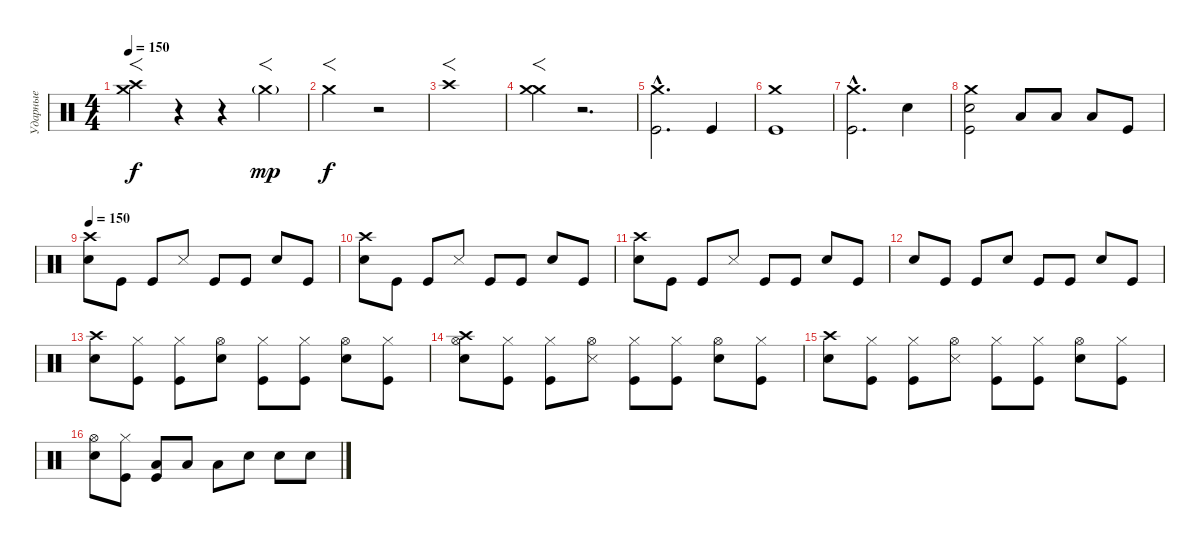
\track ("Ударные" "Ударные") {instrument percussion}
\staff {score}
\articulation defaults
\ts (4 4)
\tempo 150
\clef neutral
\ks c
("Crash high (hit)" "Crash medium (hit)").4{f dy f} r.4 r.4 "Crash medium (hit)"{g}.4{f dy mp} |
"Crash medium (hit)".2{f dy f} r.2 |
"Crash high (hit)".1{f} |
("Crash medium (hit)" "Crash medium (hit)").4{f} r.2{d} |
("Crash medium (hit)"{hac} "Kick (hit)"{hac}).2{d} "Kick (hit)".4 |
("Crash medium (hit)" "Kick (hit)").1 |
("Crash medium (hit)"{hac} "Kick (hit)"{hac}).2{d} "Electric Snare (hit)".4 |
("Crash medium (hit)" "Electric Snare (hit)" "Kick (hit)").2 "Low Tom (hit)".8 "Low Tom (hit)".8 "Low Tom (hit)".8 "Kick (hit)".8 |
\tempo 150
("Crash high (hit)" "Electric Snare (hit)").8 "Kick (hit)".8 "Kick (hit)".8 "Snare (side stick) 3".8 "Kick (hit)".8 "Kick (hit)".8 "Electric Snare (hit)".8 "Kick (hit)".8 |
("Crash high (hit)" "Electric Snare (hit)").8 "Kick (hit)".8 "Kick (hit)".8 "Snare (side stick) 3".8 "Kick (hit)".8 "Kick (hit)".8 "Electric Snare (hit)".8 "Kick (hit)".8 |
("Crash high (hit)" "Electric Snare (hit)").8 "Kick (hit)".8 "Kick (hit)".8 "Snare (side stick) 3".8 "Kick (hit)".8 "Kick (hit)".8 "Electric Snare (hit)".8 "Kick (hit)".8 |
"Electric Snare (hit)".8 "Kick (hit)".8 "Kick (hit)".8 "Electric Snare (hit)".8 "Kick (hit)".8 "Kick (hit)".8 "Electric Snare (hit)".8 "Kick (hit)".8 |
("Crash high (hit)" "Electric Snare (hit)").8 ("Hi-Hat (closed)" "Kick (hit)").8 ("Hi-Hat (closed)" "Kick (hit)").8 ("Hi-Hat (open)" "Electric Snare (hit)").8 ("Hi-Hat (closed)" "Kick (hit)").8 ("Hi-Hat (closed)" "Kick (hit)").8 ("Hi-Hat (open)" "Electric Snare (hit)").8 ("Hi-Hat (closed)" "Kick (hit)").8 |
("Crash high (hit)" "Hi-Hat (open)" "Electric Snare (hit)").8 ("Hi-Hat (closed)" "Kick (hit)").8 ("Hi-Hat (closed)" "Kick (hit)").8 ("Hi-Hat (open)" "Snare (side stick) 3").8 ("Hi-Hat (closed)" "Kick (hit)").8 ("Hi-Hat (closed)" "Kick (hit)").8 ("Hi-Hat (open)" "Electric Snare (hit)").8 ("Hi-Hat (closed)" "Kick (hit)").8 |
("Crash high (hit)" "Electric Snare (hit)").8 ("Hi-Hat (closed)" "Kick (hit)").8 ("Hi-Hat (closed)" "Kick (hit)").8 ("Hi-Hat (open)" "Snare (side stick) 3").8 ("Hi-Hat (closed)" "Kick (hit)").8 ("Hi-Hat (closed)" "Kick (hit)").8 ("Hi-Hat (open)" "Electric Snare (hit)").8 ("Hi-Hat (closed)" "Kick (hit)").8 |
("Hi-Hat (open)" "Electric Snare (hit)").8 ("Hi-Hat (closed)" "Kick (hit)").8 ("Low Tom (hit)" "Kick (hit)").8 "Low Tom (hit)".8 "Low Tom (hit)".8 "Electric Snare (hit)".8 "Electric Snare (hit)".8 "Electric Snare (hit)".8
